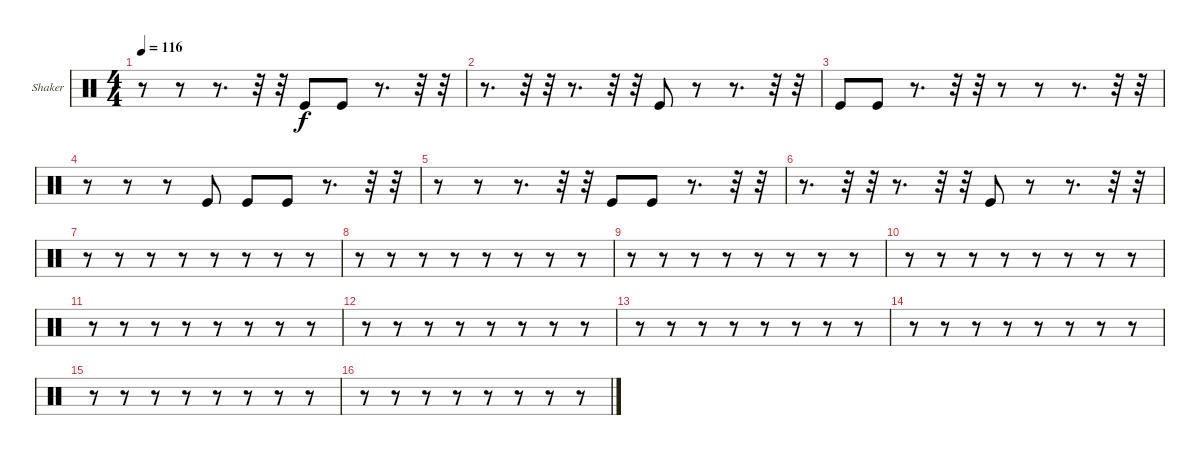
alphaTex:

\bracketExtendMode groupsimilarinstruments
\firstSystemTrackNameOrientation horizontal
\otherSystemsTrackNameOrientation horizontal
\track ("Shaker" "Shaker") {instrument percussion}
\staff {score}
\articulation defaults
\ts (4 4)
\tempo 116
\clef neutral
\ks c
r.8{dy f} r.8 r.8{d} r.32 r.32 "Kick (hit)".8 "Kick (hit)".8 r.8{d} r.32 r.32 |
r.8{d} r.32 r.32 r.8{d} r.32 r.32 "Kick (hit)".8 r.8 r.8{d} r.32 r.32 |
"Kick (hit)".8 "Kick (hit)".8 r.8{d} r.32 r.32 r.8 r.8 r.8{d} r.32 r.32 |
r.8 r.8 r.8 "Kick (hit)".8 "Kick (hit)".8 "Kick (hit)".8 r.8{d} r.32 r.32 |
r.8 r.8 r.8{d} r.32 r.32 "Kick (hit)".8 "Kick (hit)".8 r.8{d} r.32 r.32 |
r.8{d} r.32 r.32 r.8{d} r.32 r.32 "Kick (hit)".8 r.8 r.8{d} r.32 r.32 |
r.8 r.8 r.8 r.8 r.8 r.8 r.8 r.8 |
r.8 r.8 r.8 r.8 r.8 r.8 r.8 r.8 |
r.8 r.8 r.8 r.8 r.8 r.8 r.8 r.8 |
r.8 r.8 r.8 r.8 r.8 r.8 r.8 r.8 |
r.8 r.8 r.8 r.8 r.8 r.8 r.8 r.8 |
r.8 r.8 r.8 r.8 r.8 r.8 r.8 r.8 |
r.8 r.8 r.8 r.8 r.8 r.8 r.8 r.8 |
r.8 r.8 r.8 r.8 r.8 r.8 r.8 r.8 |
r.8 r.8 r.8 r.8 r.8 r.8 r.8 r.8 |
r.8 r.8 r.8 r.8 r.8 r.8 r.8 r.8
